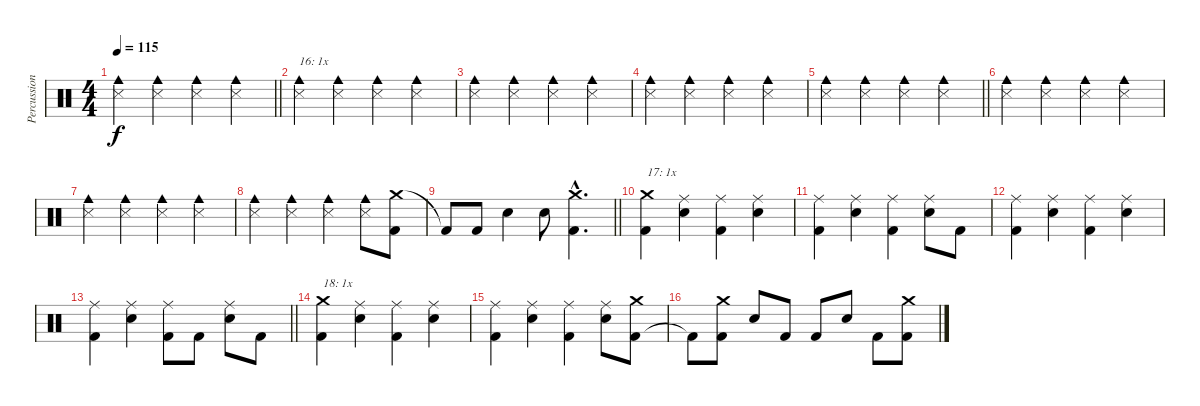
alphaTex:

\track ("Percussion" "Percussion") {instrument percussion}
\staff {score}
\articulation defaults
\ts (4 4)
\tempo 115
\clef neutral
\barLineRight lightlight
\ks c
("Cowbell medium (hit)" "Snare (side stick) 3").4{dy f} ("Cowbell medium (hit)" "Snare (side stick) 3").4 ("Cowbell medium (hit)" "Snare (side stick) 3").4 ("Cowbell medium (hit)" "Snare (side stick) 3").4 |
("Cowbell medium (hit)" "Snare (side stick) 3").4{txt "16: 1x"} ("Cowbell medium (hit)" "Snare (side stick) 3").4 ("Cowbell medium (hit)" "Snare (side stick) 3").4 ("Cowbell medium (hit)" "Snare (side stick) 3").4 |
("Cowbell medium (hit)" "Snare (side stick) 3").4 ("Cowbell medium (hit)" "Snare (side stick) 3").4 ("Cowbell medium (hit)" "Snare (side stick) 3").4 ("Cowbell medium (hit)" "Snare (side stick) 3").4 |
("Cowbell medium (hit)" "Snare (side stick) 3").4 ("Cowbell medium (hit)" "Snare (side stick) 3").4 ("Cowbell medium (hit)" "Snare (side stick) 3").4 ("Cowbell medium (hit)" "Snare (side stick) 3").4 |
\barLineRight lightlight
("Cowbell medium (hit)" "Snare (side stick) 3").4 ("Cowbell medium (hit)" "Snare (side stick) 3").4 ("Cowbell medium (hit)" "Snare (side stick) 3").4 ("Cowbell medium (hit)" "Snare (side stick) 3").4 |
("Cowbell medium (hit)" "Snare (side stick) 3").4 ("Cowbell medium (hit)" "Snare (side stick) 3").4 ("Cowbell medium (hit)" "Snare (side stick) 3").4 ("Cowbell medium (hit)" "Snare (side stick) 3").4 |
("Cowbell medium (hit)" "Snare (side stick) 3").4 ("Cowbell medium (hit)" "Snare (side stick) 3").4 ("Cowbell medium (hit)" "Snare (side stick) 3").4 ("Cowbell medium (hit)" "Snare (side stick) 3").4 |
("Snare (side stick) 3" "Cowbell medium (hit)").4 ("Cowbell medium (hit)" "Snare (side stick) 3").4 ("Snare (side stick) 3" "Cowbell medium (hit)").4 ("Snare (side stick) 3" "Cowbell medium (hit)").8 ("Crash medium (hit)" "Kick (hit) 2").8 |
\barLineRight lightlight "Kick (hit) 2"{t}.8 "Kick (hit) 2".8 "Electric Snare (hit)".4 "Electric Snare (hit)".8
("Kick (hit) 2"{hac} "Crash medium (hit)"{hac}).4{d} |
("Kick (hit) 2" "Crash medium (hit)").4{txt "17: 1x"} ("Electric Snare (hit)" "Ride (middle)").4 ("Kick (hit) 2" "Ride (middle)").4 ("Electric Snare (hit)" "Ride (middle)").4 |
("Kick (hit) 2" "Ride (middle)").4 ("Electric Snare (hit)" "Ride (middle)").4 ("Kick (hit) 2" "Ride (middle)").4 ("Electric Snare (hit)" "Ride (middle)").8 "Kick (hit) 2".8 |
("Kick (hit) 2" "Ride (middle)").4 ("Electric Snare (hit)" "Ride (middle)").4 ("Kick (hit) 2" "Ride (middle)").4 ("Electric Snare (hit)" "Ride (middle)").4 |
\barLineRight lightlight
("Kick (hit) 2" "Ride (middle)").4 ("Electric Snare (hit)" "Ride (middle)").4 ("Kick (hit) 2" "Ride (middle)").8 "Kick (hit) 2".8 ("Electric Snare (hit)" "Ride (middle)").8 "Kick (hit) 2".8 |
("Kick (hit) 2" "Crash medium (hit)").4{txt "18: 1x"} ("Electric Snare (hit)" "Ride (middle)").4 ("Kick (hit) 2" "Ride (middle)").4 ("Electric Snare (hit)" "Ride (middle)").4 |
("Kick (hit) 2" "Ride (middle)").4 ("Electric Snare (hit)" "Ride (middle)").4 ("Kick (hit) 2" "Ride (middle)").4 ("Electric Snare (hit)" "Ride (middle)").8 ("Kick (hit) 2" "Crash medium (hit)").8 |
"Kick (hit) 2"{t}.8 ("Kick (hit) 2" "Crash medium (hit)").8 "Electric Snare (hit)".8 "Kick (hit) 2".8 "Kick (hit) 2".8 "Electric Snare (hit)".8 "Kick (hit) 2".8 ("Kick (hit) 2" "Crash medium (hit)").8
